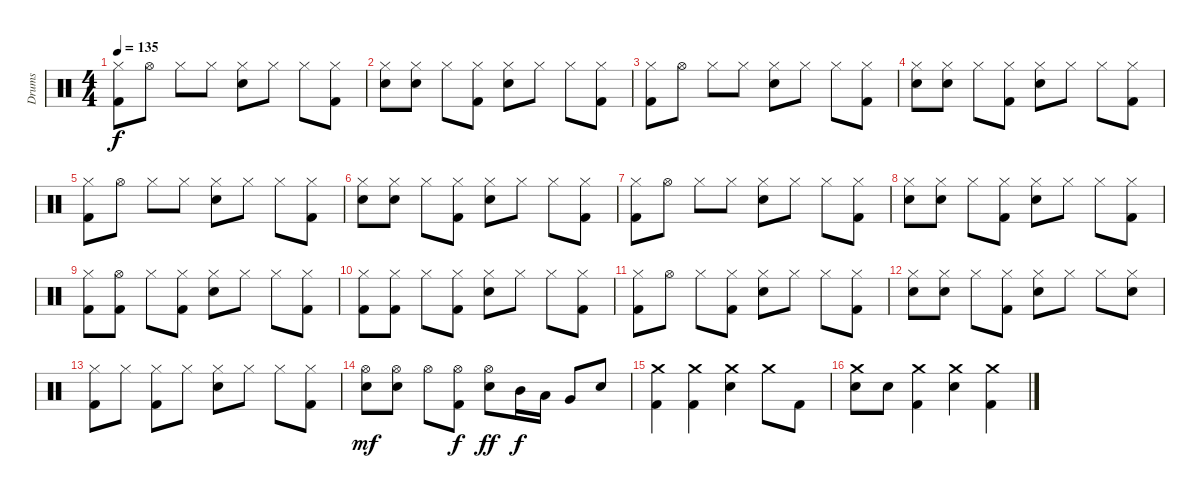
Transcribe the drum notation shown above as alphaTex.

\track ("Drums" "Drums") {instrument percussion}
\staff {score}
\articulation defaults
\ts (4 4)
\tempo 135
\clef neutral
\ks c
("Hi-Hat (closed)" "Kick (hit) 2").8{dy f} "Hi-Hat (open)".8 "Hi-Hat (closed)".8 "Hi-Hat (closed)".8 ("Hi-Hat (closed)" "Snare (hit) 2").8 "Hi-Hat (closed)".8 "Hi-Hat (closed)".8 ("Hi-Hat (closed)" "Kick (hit) 2").8 |
("Hi-Hat (closed)" "Snare (hit) 2").8 ("Hi-Hat (closed)" "Snare (hit) 2").8 "Hi-Hat (closed)".8 ("Hi-Hat (closed)" "Kick (hit) 2").8 ("Hi-Hat (closed)" "Snare (hit) 2").8 "Hi-Hat (closed)".8 "Hi-Hat (closed)".8 ("Hi-Hat (closed)" "Kick (hit) 2").8 |
("Hi-Hat (closed)" "Kick (hit) 2").8 "Hi-Hat (open)".8 "Hi-Hat (closed)".8 "Hi-Hat (closed)".8 ("Hi-Hat (closed)" "Snare (hit) 2").8 "Hi-Hat (closed)".8 "Hi-Hat (closed)".8 ("Hi-Hat (closed)" "Kick (hit) 2").8 |
("Hi-Hat (closed)" "Snare (hit) 2").8 ("Hi-Hat (closed)" "Snare (hit) 2").8 "Hi-Hat (closed)".8 ("Hi-Hat (closed)" "Kick (hit) 2").8 ("Hi-Hat (closed)" "Snare (hit) 2").8 "Hi-Hat (closed)".8 "Hi-Hat (closed)".8 ("Hi-Hat (closed)" "Kick (hit) 2").8 |
("Hi-Hat (closed)" "Kick (hit) 2").8 "Hi-Hat (open)".8 "Hi-Hat (closed)".8 "Hi-Hat (closed)".8 ("Hi-Hat (closed)" "Snare (hit) 2").8 "Hi-Hat (closed)".8 "Hi-Hat (closed)".8 ("Hi-Hat (closed)" "Kick (hit) 2").8 |
("Hi-Hat (closed)" "Snare (hit) 2").8 ("Hi-Hat (closed)" "Snare (hit) 2").8 "Hi-Hat (closed)".8 ("Hi-Hat (closed)" "Kick (hit) 2").8 ("Hi-Hat (closed)" "Snare (hit) 2").8 "Hi-Hat (closed)".8 "Hi-Hat (closed)".8 ("Hi-Hat (closed)" "Kick (hit) 2").8 |
("Hi-Hat (closed)" "Kick (hit) 2").8 "Hi-Hat (open)".8 "Hi-Hat (closed)".8 "Hi-Hat (closed)".8 ("Hi-Hat (closed)" "Snare (hit) 2").8 "Hi-Hat (closed)".8 "Hi-Hat (closed)".8 ("Hi-Hat (closed)" "Kick (hit) 2").8 |
("Hi-Hat (closed)" "Snare (hit) 2").8 ("Hi-Hat (closed)" "Snare (hit) 2").8 "Hi-Hat (closed)".8 ("Hi-Hat (closed)" "Kick (hit) 2").8 ("Hi-Hat (closed)" "Snare (hit) 2").8 "Hi-Hat (closed)".8 "Hi-Hat (closed)".8 ("Hi-Hat (closed)" "Kick (hit) 2").8 |
("Hi-Hat (closed)" "Kick (hit) 2").8 ("Hi-Hat (open)" "Kick (hit) 2").8 "Hi-Hat (closed)".8 ("Hi-Hat (closed)" "Kick (hit) 2").8 ("Hi-Hat (closed)" "Snare (hit) 2").8 "Hi-Hat (closed)".8 "Hi-Hat (closed)".8 ("Hi-Hat (closed)" "Kick (hit) 2").8 |
("Hi-Hat (closed)" "Kick (hit) 2").8 ("Hi-Hat (closed)" "Kick (hit) 2").8 "Hi-Hat (closed)".8 ("Hi-Hat (closed)" "Kick (hit) 2").8 ("Hi-Hat (closed)" "Snare (hit) 2").8 "Hi-Hat (closed)".8 "Hi-Hat (closed)".8 ("Hi-Hat (closed)" "Kick (hit) 2").8 |
("Hi-Hat (closed)" "Kick (hit) 2").8 "Hi-Hat (open)".8 "Hi-Hat (closed)".8 ("Hi-Hat (closed)" "Kick (hit) 2").8 ("Hi-Hat (closed)" "Snare (hit) 2").8 "Hi-Hat (closed)".8 "Hi-Hat (closed)".8 ("Hi-Hat (closed)" "Kick (hit) 2").8 |
("Hi-Hat (closed)" "Snare (hit) 2").8 ("Hi-Hat (closed)" "Snare (hit) 2").8 "Hi-Hat (closed)".8 ("Hi-Hat (closed)" "Kick (hit) 2").8 ("Hi-Hat (closed)" "Snare (hit) 2").8 "Hi-Hat (closed)".8 "Hi-Hat (closed)".8 ("Hi-Hat (closed)" "Snare (hit) 2").8 |
("Hi-Hat (closed)" "Kick (hit) 2").8 "Hi-Hat (closed)".8 ("Hi-Hat (closed)" "Kick (hit) 2").8 "Hi-Hat (closed)".8 ("Hi-Hat (closed)" "Snare (hit) 2").8 "Hi-Hat (closed)".8 "Hi-Hat (closed)".8 ("Hi-Hat (closed)" "Kick (hit) 2").8 |
("Hi-Hat (open)" "Snare (hit) 2").8{dy mf} ("Hi-Hat (open)" "Snare (hit) 2").8 "Hi-Hat (open)".8 ("Hi-Hat (open)" "Kick (hit) 2").8{dy f} ("Hi-Hat (open)" "Snare (hit) 2").8{dy ff} "Mid Tom (hit)".16{dy f} "Low Tom (hit)".16 "Very Low Tom (hit)".8 "Snare (hit) 2".8 |
("Crash medium (hit)" "Kick (hit) 2").4 ("Crash medium (hit)" "Kick (hit) 2").4 ("Crash medium (hit)" "Snare (hit) 2").4 "Crash medium (hit)".8 "Kick (hit) 2".8 |
("Crash medium (hit)" "Snare (hit) 2").8 "Snare (hit) 2".8 ("Crash medium (hit)" "Kick (hit) 2").4 ("Crash medium (hit)" "Snare (hit) 2").4 ("Crash medium (hit)" "Kick (hit) 2").4
